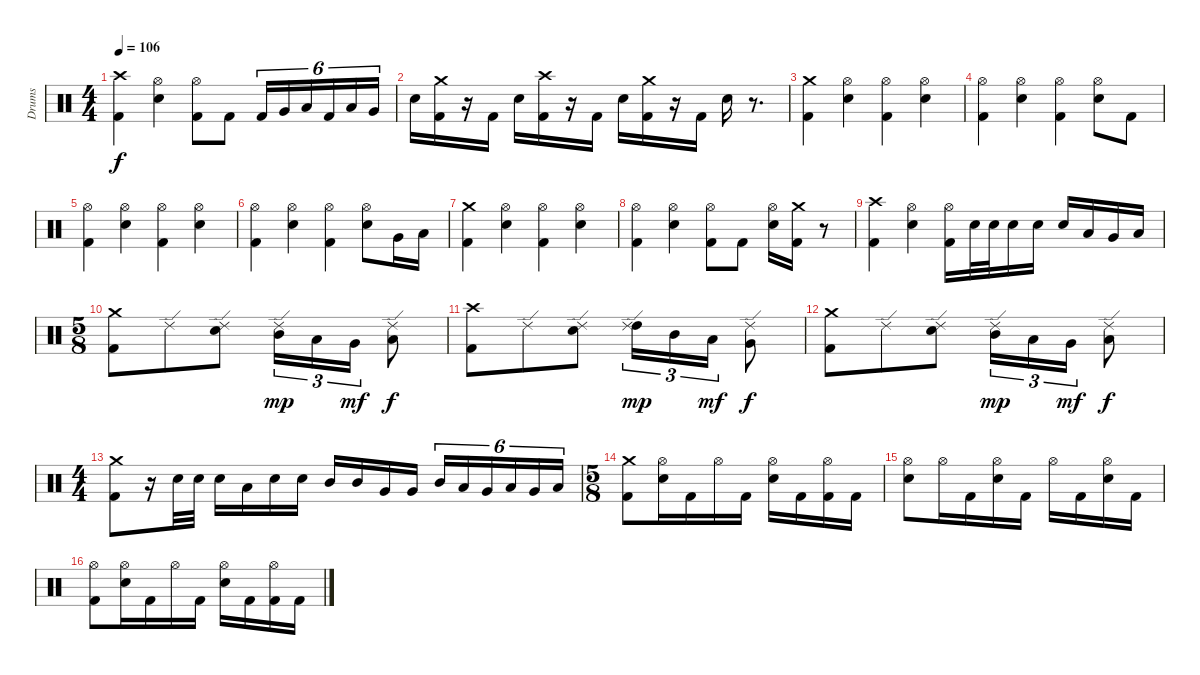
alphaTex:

\track ("Drums" "Drums") {instrument percussion}
\staff {score}
\articulation defaults
\ts (4 4)
\tempo 106
\clef neutral
\ks c
("Crash high (hit)" "Kick (hit) 2").4{dy f} ("Hi-Hat (open)" "Electric Snare (hit)").4 ("Hi-Hat (open)" "Kick (hit) 2").8 "Kick (hit) 2".8 "Kick (hit) 2".16{tu (6 4)} "Very Low Tom (hit)".16{tu (6 4)} "Low Floor Tom (hit)".16{tu (6 4)} "Kick (hit) 2".16{tu (6 4)} "Low Floor Tom (hit)".16{tu (6 4)} "Very Low Tom (hit)".16{tu (6 4)} |
"Electric Snare (hit)".16 ("Kick (hit) 2" "Crash medium (hit)").16 r.16 "Kick (hit) 2".16 "Electric Snare (hit)".16 ("Crash high (hit)" "Kick (hit) 2").16 r.16 "Kick (hit) 2".16 "Electric Snare (hit)".16 ("Crash medium (hit)" "Kick (hit) 2").16 r.16 "Kick (hit) 2".16 "Electric Snare (hit)".16 r.8{d} |
("Crash medium (hit)" "Kick (hit) 2").4 ("Hi-Hat (open)" "Electric Snare (hit)").4 ("Hi-Hat (open)" "Kick (hit) 2").4 ("Hi-Hat (open)" "Electric Snare (hit)").4 |
("Hi-Hat (open)" "Kick (hit) 2").4 ("Hi-Hat (open)" "Electric Snare (hit)").4 ("Hi-Hat (open)" "Kick (hit) 2").4 ("Hi-Hat (open)" "Electric Snare (hit)").8 "Kick (hit) 2".8 |
("Hi-Hat (open)" "Kick (hit) 2").4 ("Hi-Hat (open)" "Electric Snare (hit)").4 ("Hi-Hat (open)" "Kick (hit) 2").4 ("Hi-Hat (open)" "Electric Snare (hit)").4 |
("Hi-Hat (open)" "Kick (hit) 2").4 ("Hi-Hat (open)" "Electric Snare (hit)").4 ("Hi-Hat (open)" "Kick (hit) 2").4 ("Hi-Hat (open)" "Electric Snare (hit)").8 "Very Low Tom (hit)".16 "Low Floor Tom (hit)".16 |
("Crash medium (hit)" "Kick (hit) 2").4 ("Hi-Hat (open)" "Electric Snare (hit)").4 ("Hi-Hat (open)" "Kick (hit) 2").4 ("Hi-Hat (open)" "Electric Snare (hit)").4 |
("Hi-Hat (open)" "Kick (hit) 2").4 ("Hi-Hat (open)" "Electric Snare (hit)").4 ("Hi-Hat (open)" "Kick (hit) 2").8 "Kick (hit) 2".8 ("Hi-Hat (open)" "Electric Snare (hit)").16 ("Crash medium (hit)" "Kick (hit) 2").16 r.8 |
("Crash high (hit)" "Kick (hit) 2").4 ("Hi-Hat (open)" "Electric Snare (hit)").4 ("Hi-Hat (open)" "Kick (hit) 2").16 "Electric Snare (hit)".32 "Electric Snare (hit)".32 "Electric Snare (hit)".16 "Electric Snare (hit)".16 "Electric Snare (hit)".16 "Low Tom (hit)".16 "Very Low Tom (hit)".16 "Low Floor Tom (hit)".16 |
\ts (5 8)
("Crash medium (hit)" "Kick (hit) 2").8 "Ride (edge) 2".8 ("Ride (edge) 2" "Electric Snare (hit)").8 ("Ride (edge) 2" "Mid Tom (hit)").16{tu (3 2) dy mp} "Low Tom (hit)".16{tu (3 2)} "Very Low Tom (hit)".16{tu (3 2) dy mf} ("Ride (edge) 2" "Low Floor Tom (hit)").8{dy f} |
("Crash high (hit)" "Kick (hit) 2").8 "Ride (edge) 2".8 ("Ride (edge) 2" "Electric Snare (hit)").8 ("High Tom (hit)" "Ride (edge) 2").16{tu (3 2) dy mp} "Mid Tom (hit)".16{tu (3 2)} "Low Tom (hit)".16{tu (3 2) dy mf} ("Very Low Tom (hit)" "Ride (edge) 2").8{dy f} |
("Crash medium (hit)" "Kick (hit) 2").8 "Ride (edge) 2".8 ("Ride (edge) 2" "Electric Snare (hit)").8 ("Ride (edge) 2" "Mid Tom (hit)").16{tu (3 2) dy mp} "Low Tom (hit)".16{tu (3 2)} "Very Low Tom (hit)".16{tu (3 2) dy mf} ("Ride (edge) 2" "Low Floor Tom (hit)").8{dy f} |
\ts (4 4)
("Crash medium (hit)" "Kick (hit) 2").8 r.16 "Electric Snare (hit)".32 "Electric Snare (hit)".32 "Electric Snare (hit)".16 "Low Tom (hit)".16 "Electric Snare (hit)".16 "Electric Snare (hit)".16 "Mid Tom (hit)".16 "Mid Tom (hit)".16 "Very Low Tom (hit)".16 "Very Low Tom (hit)".16 "Mid Tom (hit)".16{tu (6 4)} "Low Tom (hit)".16{tu (6 4)} "Very Low Tom (hit)".16{tu (6 4)} "Low Tom (hit)".16{tu (6 4)} "Very Low Tom (hit)".16{tu (6 4)} "Low Floor Tom (hit)".16{tu (6 4)} |
\ts (5 8)
("Kick (hit) 2" "Crash medium (hit)").8 ("Electric Snare (hit)" "Hi-Hat (open)").16 "Kick (hit) 2".16 "Hi-Hat (open)".16 "Kick (hit) 2".16 ("Electric Snare (hit)" "Hi-Hat (open)").16 "Kick (hit) 2".16 ("Kick (hit) 2" "Hi-Hat (open)").16 "Kick (hit) 2".16 |
("Electric Snare (hit)" "Hi-Hat (open)").8 "Hi-Hat (open)".16 "Kick (hit) 2".16 ("Electric Snare (hit)" "Hi-Hat (open)").16 "Kick (hit) 2".16 "Hi-Hat (open)".16 "Kick (hit) 2".16 ("Electric Snare (hit)" "Hi-Hat (open)").16 "Kick (hit) 2".16 |
("Kick (hit) 2" "Hi-Hat (open)").8 ("Electric Snare (hit)" "Hi-Hat (open)").16 "Kick (hit) 2".16 "Hi-Hat (open)".16 "Kick (hit) 2".16 ("Electric Snare (hit)" "Hi-Hat (open)").16 "Kick (hit) 2".16 ("Kick (hit) 2" "Hi-Hat (open)").16 "Kick (hit) 2".16
